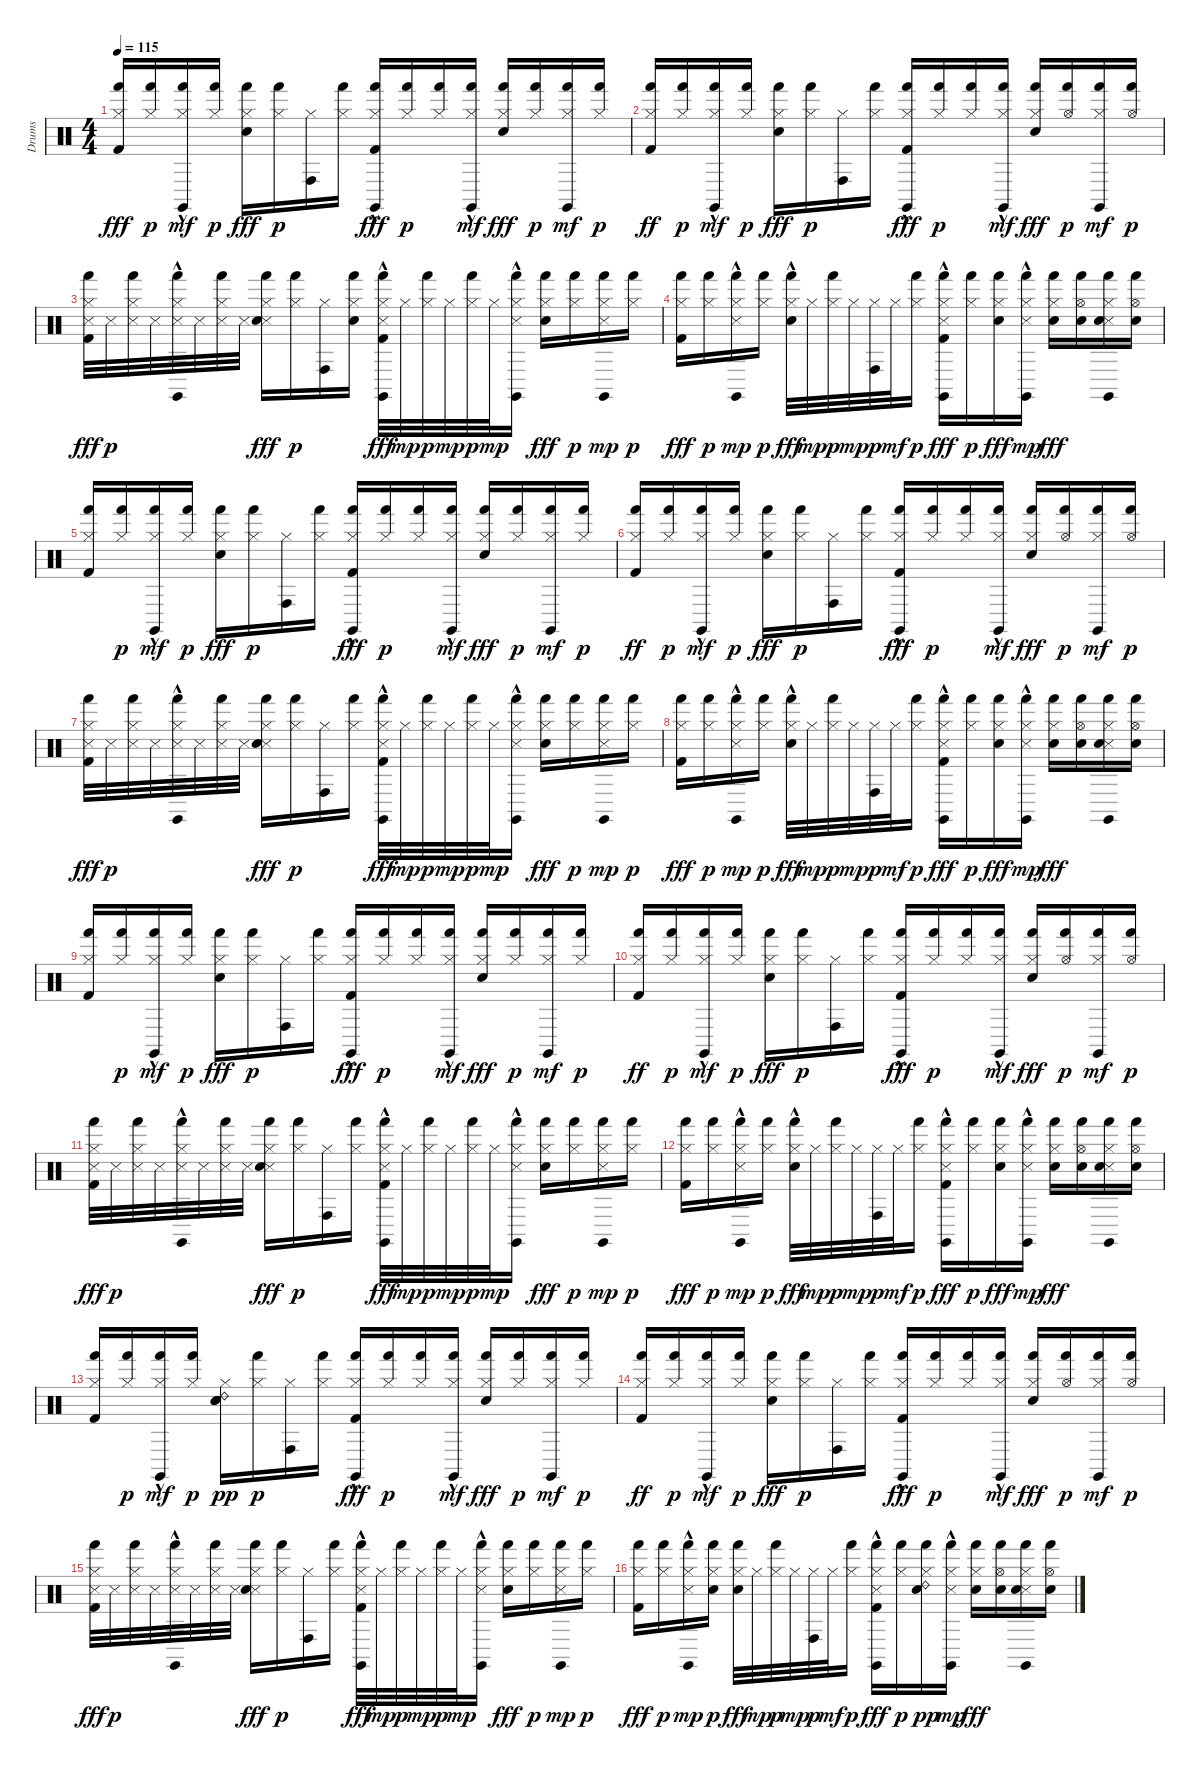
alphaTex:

\track ("Drums" "Drums") {instrument percussion}
\staff {score}
\articulation defaults
\ts (4 4)
\tempo 115
\clef neutral
\ks c
("Hi-Hat (closed)" "Hand (hit)" "Kick (hit) 2").16{dy fff} ("Hi-Hat (closed)" "Hand (hit)").16{dy p} ("Hi-Hat (closed)" "Hand (hit)" "Claves (hit)"{hac}).16{dy mf} ("Hi-Hat (closed)" "Hand (hit)").16{dy p} ("Hi-Hat (closed)" "Hand (hit)" "Snare (hit) 2").16{dy fff} ("Hi-Hat (closed)" "Hand (hit)").16{dy p} ("Hi-Hat (closed)" "Conga high (hit)").16 ("Hi-Hat (closed)" "Hand (hit)").16 ("Hi-Hat (closed)" "Hand (hit)" "Claves (hit)"{hac} "Kick (hit) 2").16{dy fff} ("Hi-Hat (closed)" "Hand (hit)").16{dy p} ("Hi-Hat (closed)" "Hand (hit)").16 ("Hi-Hat (closed)" "Hand (hit)" "Claves (hit)"{hac}).16{dy mf} ("Hi-Hat (closed)" "Hand (hit)" "Snare (hit) 2").16{dy fff} ("Hi-Hat (closed)" "Hand (hit)").16{dy p} ("Hi-Hat (closed)" "Hand (hit)" "Claves (hit)").16{dy mf} ("Hi-Hat (closed)" "Hand (hit)").16{dy p} |
("Hi-Hat (closed)" "Hand (hit)" "Kick (hit) 2").16{dy ff} ("Hi-Hat (closed)" "Hand (hit)").16{dy p} ("Hi-Hat (closed)" "Hand (hit)" "Claves (hit)"{hac}).16{dy mf} ("Hi-Hat (closed)" "Hand (hit)").16{dy p} ("Hi-Hat (closed)" "Hand (hit)" "Snare (hit) 2").16{dy fff} ("Hi-Hat (closed)" "Hand (hit)").16{dy p} ("Hi-Hat (closed)" "Conga high (hit)").16 ("Hi-Hat (closed)" "Hand (hit)").16 ("Hi-Hat (closed)" "Hand (hit)" "Claves (hit)"{hac} "Kick (hit) 2").16{dy fff} ("Hi-Hat (closed)" "Hand (hit)").16{dy p} ("Hi-Hat (closed)" "Hand (hit)").16 ("Hi-Hat (closed)" "Hand (hit)" "Claves (hit)"{hac}).16{dy mf} ("Hi-Hat (closed)" "Hand (hit)" "Snare (hit) 2").16{dy fff} ("Hi-Hat (open)" "Hand (hit)").16{dy p} ("Hi-Hat (closed)" "Hand (hit)" "Claves (hit)").16{dy mf} ("Hi-Hat (open)" "Hand (hit)").16{dy p} |
("Hi-Hat (closed)" "Hand (hit)" "Snare (side stick) 3" "Kick (hit) 2").32{dy fff} "Snare (side stick) 3".32{dy p} ("Hi-Hat (closed)" "Hand (hit)" "Snare (side stick) 3").32 "Snare (side stick) 3".32 ("Hi-Hat (closed)" "Hand (hit)" "Claves (hit)"{hac} "Snare (side stick) 3").32 "Snare (side stick) 3".32 ("Hi-Hat (closed)" "Hand (hit)" "Snare (side stick) 3").32 "Snare (side stick) 3".32 ("Hi-Hat (closed)" "Hand (hit)" "Snare (side stick) 3" "Snare (hit) 2").16{dy fff} ("Hi-Hat (closed)" "Hand (hit)").16{dy p} ("Hi-Hat (closed)" "Conga high (hit)").16 ("Hi-Hat (closed)" "Snare (hit)" "Hand (hit)").16 ("Hi-Hat (closed)" "Hand (hit)" "Claves (hit)"{hac} "Snare (side stick) 3"{hac} "Kick (hit) 2").32{dy fff} "Hi-Hat (closed)".32{dy mp} ("Hi-Hat (closed)" "Hand (hit)").32{dy p} "Hi-Hat (closed)".32{dy mp} ("Hi-Hat (closed)" "Hand (hit)").32{dy p} "Hi-Hat (closed)".32{dy mp} ("Hi-Hat (closed)" "Hand (hit)" "Claves (hit)"{hac} "Snare (side stick) 3"{hac}).16 ("Hi-Hat (closed)" "Hand (hit)" "Snare (hit) 2").16{dy fff} ("Hi-Hat (closed)" "Hand (hit)").16{dy p} ("Hi-Hat (closed)" "Hand (hit)" "Claves (hit)" "Snare (side stick) 3").16{dy mp} ("Hi-Hat (closed)" "Hand (hit)").16{dy p} |
("Hi-Hat (closed)" "Hand (hit)" "Kick (hit) 2").16{dy fff} ("Hi-Hat (closed)" "Hand (hit)").16{dy p} ("Hi-Hat (closed)" "Hand (hit)" "Claves (hit)"{hac} "Snare (side stick) 3"{hac}).16{dy mp} ("Hi-Hat (closed)" "Hand (hit)").16{dy p} ("Hi-Hat (closed)" "Hand (hit)" "Snare (hit) 2"{hac}).32{dy fff} "Hi-Hat (closed)".32{dy mp} ("Hi-Hat (closed)" "Hand (hit)").32{dy p} "Hi-Hat (closed)".32{dy mp} ("Hi-Hat (closed)" "Conga high (hit)").32{dy p} "Hi-Hat (closed)".32{dy mf} ("Hi-Hat (closed)" "Hand (hit)").16{dy p} ("Hi-Hat (closed)" "Hand (hit)" "Claves (hit)"{hac} "Snare (side stick) 3"{hac} "Kick (hit) 2").16{dy fff} ("Hi-Hat (closed)" "Hand (hit)").16{dy p} ("Hi-Hat (closed)" "Hand (hit)" "Snare (hit) 2").16{dy fff} ("Hi-Hat (closed)" "Hand (hit)" "Claves (hit)"{hac} "Snare (side stick) 3"{hac}).16{dy mp} ("Hi-Hat (closed)" "Hand (hit)" "Snare (hit) 2").16{dy fff} ("Hi-Hat (open)" "Hand (hit)" "Snare (hit) 2").16 ("Hi-Hat (closed)" "Hand (hit)" "Claves (hit)" "Snare (side stick) 3" "Snare (hit) 2").16 ("Hi-Hat (open)" "Hand (hit)" "Snare (hit) 2").16 |
("Hi-Hat (closed)" "Hand (hit)" "Kick (hit) 2").16 ("Hi-Hat (closed)" "Hand (hit)").16{dy p} ("Hi-Hat (closed)" "Hand (hit)" "Claves (hit)"{hac}).16{dy mf} ("Hi-Hat (closed)" "Hand (hit)").16{dy p} ("Hi-Hat (closed)" "Hand (hit)" "Snare (hit) 2").16{dy fff} ("Hi-Hat (closed)" "Hand (hit)").16{dy p} ("Hi-Hat (closed)" "Conga high (hit)").16 ("Hi-Hat (closed)" "Hand (hit)").16 ("Hi-Hat (closed)" "Hand (hit)" "Claves (hit)"{hac} "Kick (hit) 2").16{dy fff} ("Hi-Hat (closed)" "Hand (hit)").16{dy p} ("Hi-Hat (closed)" "Hand (hit)").16 ("Hi-Hat (closed)" "Hand (hit)" "Claves (hit)"{hac}).16{dy mf} ("Hi-Hat (closed)" "Hand (hit)" "Snare (hit) 2").16{dy fff} ("Hi-Hat (closed)" "Hand (hit)").16{dy p} ("Hi-Hat (closed)" "Hand (hit)" "Claves (hit)").16{dy mf} ("Hi-Hat (closed)" "Hand (hit)").16{dy p} |
("Hi-Hat (closed)" "Hand (hit)" "Kick (hit) 2").16{dy ff} ("Hi-Hat (closed)" "Hand (hit)").16{dy p} ("Hi-Hat (closed)" "Hand (hit)" "Claves (hit)"{hac}).16{dy mf} ("Hi-Hat (closed)" "Hand (hit)").16{dy p} ("Hi-Hat (closed)" "Hand (hit)" "Snare (hit) 2").16{dy fff} ("Hi-Hat (closed)" "Hand (hit)").16{dy p} ("Hi-Hat (closed)" "Conga high (hit)").16 ("Hi-Hat (closed)" "Hand (hit)").16 ("Hi-Hat (closed)" "Hand (hit)" "Claves (hit)"{hac} "Kick (hit) 2").16{dy fff} ("Hi-Hat (closed)" "Hand (hit)").16{dy p} ("Hi-Hat (closed)" "Hand (hit)").16 ("Hi-Hat (closed)" "Hand (hit)" "Claves (hit)"{hac}).16{dy mf} ("Hi-Hat (closed)" "Hand (hit)" "Snare (hit) 2").16{dy fff} ("Hi-Hat (open)" "Hand (hit)").16{dy p} ("Hi-Hat (closed)" "Hand (hit)" "Claves (hit)").16{dy mf} ("Hi-Hat (open)" "Hand (hit)").16{dy p} |
("Hi-Hat (closed)" "Hand (hit)" "Snare (side stick) 3" "Kick (hit) 2").32{dy fff} "Snare (side stick) 3".32{dy p} ("Hi-Hat (closed)" "Hand (hit)" "Snare (side stick) 3").32 "Snare (side stick) 3".32 ("Hi-Hat (closed)" "Hand (hit)" "Claves (hit)"{hac} "Snare (side stick) 3").32 "Snare (side stick) 3".32 ("Hi-Hat (closed)" "Hand (hit)" "Snare (side stick) 3").32 "Snare (side stick) 3".32 ("Hi-Hat (closed)" "Hand (hit)" "Snare (side stick) 3" "Snare (hit) 2").16{dy fff} ("Hi-Hat (closed)" "Hand (hit)").16{dy p} ("Hi-Hat (closed)" "Conga high (hit)").16 ("Hi-Hat (closed)" "Hand (hit)").16 ("Hi-Hat (closed)" "Hand (hit)" "Claves (hit)"{hac} "Snare (side stick) 3"{hac} "Kick (hit) 2").32{dy fff} "Hi-Hat (closed)".32{dy mp} ("Hi-Hat (closed)" "Hand (hit)").32{dy p} "Hi-Hat (closed)".32{dy mp} ("Hi-Hat (closed)" "Hand (hit)").32{dy p} "Hi-Hat (closed)".32{dy mp} ("Hi-Hat (closed)" "Hand (hit)" "Claves (hit)"{hac} "Snare (side stick) 3"{hac}).16 ("Hi-Hat (closed)" "Hand (hit)" "Snare (hit) 2").16{dy fff} ("Hi-Hat (closed)" "Hand (hit)").16{dy p} ("Hi-Hat (closed)" "Hand (hit)" "Claves (hit)" "Snare (side stick) 3").16{dy mp} ("Hi-Hat (closed)" "Hand (hit)").16{dy p} |
("Hi-Hat (closed)" "Hand (hit)" "Kick (hit) 2").16{dy fff} ("Hi-Hat (closed)" "Hand (hit)").16{dy p} ("Hi-Hat (closed)" "Hand (hit)" "Claves (hit)"{hac} "Snare (side stick) 3"{hac}).16{dy mp} ("Hi-Hat (closed)" "Hand (hit)").16{dy p} ("Hi-Hat (closed)" "Hand (hit)" "Snare (hit) 2"{hac}).32{dy fff} "Hi-Hat (closed)".32{dy mp} ("Hi-Hat (closed)" "Hand (hit)").32{dy p} "Hi-Hat (closed)".32{dy mp} ("Hi-Hat (closed)" "Conga high (hit)").32{dy p} "Hi-Hat (closed)".32{dy mf} ("Hi-Hat (closed)" "Hand (hit)").16{dy p} ("Hi-Hat (closed)" "Hand (hit)" "Claves (hit)"{hac} "Snare (side stick) 3"{hac} "Kick (hit) 2").16{dy fff} ("Hi-Hat (closed)" "Hand (hit)").16{dy p} ("Hi-Hat (closed)" "Hand (hit)" "Snare (hit) 2").16{dy fff} ("Hi-Hat (closed)" "Hand (hit)" "Claves (hit)"{hac} "Snare (side stick) 3"{hac}).16{dy mp} ("Hi-Hat (closed)" "Hand (hit)" "Snare (hit) 2").16{dy fff} ("Hi-Hat (open)" "Hand (hit)" "Snare (hit) 2").16 ("Hi-Hat (closed)" "Hand (hit)" "Claves (hit)" "Snare (side stick) 3" "Snare (hit) 2").16 ("Hi-Hat (open)" "Hand (hit)" "Snare (hit) 2").16 |
("Hi-Hat (closed)" "Hand (hit)" "Kick (hit) 2").16 ("Hi-Hat (closed)" "Hand (hit)").16{dy p} ("Hi-Hat (closed)" "Hand (hit)" "Claves (hit)"{hac}).16{dy mf} ("Hi-Hat (closed)" "Hand (hit)").16{dy p} ("Hi-Hat (closed)" "Hand (hit)" "Snare (hit) 2").16{dy fff} ("Hi-Hat (closed)" "Hand (hit)").16{dy p} ("Hi-Hat (closed)" "Conga high (hit)").16 ("Hi-Hat (closed)" "Hand (hit)").16 ("Hi-Hat (closed)" "Hand (hit)" "Claves (hit)"{hac} "Kick (hit) 2").16{dy fff} ("Hi-Hat (closed)" "Hand (hit)").16{dy p} ("Hi-Hat (closed)" "Hand (hit)").16 ("Hi-Hat (closed)" "Hand (hit)" "Claves (hit)"{hac}).16{dy mf} ("Hi-Hat (closed)" "Hand (hit)" "Snare (hit) 2").16{dy fff} ("Hi-Hat (closed)" "Hand (hit)").16{dy p} ("Hi-Hat (closed)" "Hand (hit)" "Claves (hit)").16{dy mf} ("Hi-Hat (closed)" "Hand (hit)").16{dy p} |
("Hi-Hat (closed)" "Hand (hit)" "Kick (hit) 2").16{dy ff} ("Hi-Hat (closed)" "Hand (hit)").16{dy p} ("Hi-Hat (closed)" "Hand (hit)" "Claves (hit)"{hac}).16{dy mf} ("Hi-Hat (closed)" "Hand (hit)").16{dy p} ("Hi-Hat (closed)" "Hand (hit)" "Snare (hit) 2").16{dy fff} ("Hi-Hat (closed)" "Hand (hit)").16{dy p} ("Hi-Hat (closed)" "Conga high (hit)").16 ("Hi-Hat (closed)" "Hand (hit)").16 ("Hi-Hat (closed)" "Hand (hit)" "Claves (hit)"{hac} "Kick (hit) 2").16{dy fff} ("Hi-Hat (closed)" "Hand (hit)").16{dy p} ("Hi-Hat (closed)" "Hand (hit)").16 ("Hi-Hat (closed)" "Hand (hit)" "Claves (hit)"{hac}).16{dy mf} ("Hi-Hat (closed)" "Hand (hit)" "Snare (hit) 2").16{dy fff} ("Hi-Hat (open)" "Hand (hit)").16{dy p} ("Hi-Hat (closed)" "Hand (hit)" "Claves (hit)").16{dy mf} ("Hi-Hat (open)" "Hand (hit)").16{dy p} |
("Hi-Hat (closed)" "Hand (hit)" "Snare (side stick) 3" "Kick (hit) 2").32{dy fff} "Snare (side stick) 3".32{dy p} ("Hi-Hat (closed)" "Hand (hit)" "Snare (side stick) 3").32 "Snare (side stick) 3".32 ("Hi-Hat (closed)" "Hand (hit)" "Claves (hit)"{hac} "Snare (side stick) 3").32 "Snare (side stick) 3".32 ("Hi-Hat (closed)" "Hand (hit)" "Snare (side stick) 3").32 "Snare (side stick) 3".32 ("Hi-Hat (closed)" "Hand (hit)" "Snare (side stick) 3" "Snare (hit) 2").16{dy fff} ("Hi-Hat (closed)" "Hand (hit)").16{dy p} ("Hi-Hat (closed)" "Conga high (hit)").16 ("Hi-Hat (closed)" "Hand (hit)").16 ("Hi-Hat (closed)" "Hand (hit)" "Claves (hit)"{hac} "Snare (side stick) 3"{hac} "Kick (hit) 2").32{dy fff} "Hi-Hat (closed)".32{dy mp} ("Hi-Hat (closed)" "Hand (hit)").32{dy p} "Hi-Hat (closed)".32{dy mp} ("Hi-Hat (closed)" "Hand (hit)").32{dy p} "Hi-Hat (closed)".32{dy mp} ("Hi-Hat (closed)" "Hand (hit)" "Claves (hit)"{hac} "Snare (side stick) 3"{hac}).16 ("Hi-Hat (closed)" "Hand (hit)" "Snare (hit) 2").16{dy fff} ("Hi-Hat (closed)" "Hand (hit)").16{dy p} ("Hi-Hat (closed)" "Hand (hit)" "Claves (hit)" "Snare (side stick) 3").16{dy mp} ("Hi-Hat (closed)" "Hand (hit)").16{dy p} |
("Hi-Hat (closed)" "Hand (hit)" "Kick (hit) 2").16{dy fff} ("Hi-Hat (closed)" "Hand (hit)").16{dy p} ("Hi-Hat (closed)" "Hand (hit)" "Claves (hit)"{hac} "Snare (side stick) 3"{hac}).16{dy mp} ("Hi-Hat (closed)" "Hand (hit)").16{dy p} ("Hi-Hat (closed)" "Hand (hit)" "Snare (hit) 2"{hac}).32{dy fff} "Hi-Hat (closed)".32{dy mp} ("Hi-Hat (closed)" "Hand (hit)").32{dy p} "Hi-Hat (closed)".32{dy mp} ("Hi-Hat (closed)" "Conga high (hit)").32{dy p} "Hi-Hat (closed)".32{dy mf} ("Hi-Hat (closed)" "Hand (hit)").16{dy p} ("Hi-Hat (closed)" "Hand (hit)" "Claves (hit)"{hac} "Snare (side stick) 3"{hac} "Kick (hit) 2").16{dy fff} ("Hi-Hat (closed)" "Hand (hit)").16{dy p} ("Hi-Hat (closed)" "Hand (hit)" "Snare (hit) 2").16{dy fff} ("Hi-Hat (closed)" "Hand (hit)" "Claves (hit)"{hac} "Snare (side stick) 3"{hac}).16{dy mp} ("Hi-Hat (closed)" "Hand (hit)" "Snare (hit) 2").16{dy fff} ("Hi-Hat (open)" "Hand (hit)" "Snare (hit) 2").16 ("Hi-Hat (closed)" "Hand (hit)" "Claves (hit)" "Snare (side stick) 3" "Snare (hit) 2").16 ("Hi-Hat (open)" "Hand (hit)" "Snare (hit) 2").16 |
("Hi-Hat (closed)" "Hand (hit)" "Kick (hit) 2").16 ("Hi-Hat (closed)" "Hand (hit)").16{dy p} ("Hi-Hat (closed)" "Hand (hit)" "Claves (hit)"{hac}).16{dy mf} ("Hi-Hat (closed)" "Hand (hit)").16{dy p} ("Snare (hit) 2" "Hi-Hat (closed)" "Snare (hit)" "Snare (hit)" "Ride (bell) 2").16{dy pp} ("Hi-Hat (closed)" "Hand (hit)").16{dy p} ("Hi-Hat (closed)" "Conga high (hit)").16 ("Hi-Hat (closed)" "Hand (hit)").16 ("Hi-Hat (closed)" "Hand (hit)" "Claves (hit)"{hac} "Kick (hit) 2").16{dy fff} ("Hi-Hat (closed)" "Hand (hit)").16{dy p} ("Hi-Hat (closed)" "Hand (hit)").16 ("Hi-Hat (closed)" "Hand (hit)" "Claves (hit)"{hac}).16{dy mf} ("Hi-Hat (closed)" "Hand (hit)" "Snare (hit) 2").16{dy fff} ("Hi-Hat (closed)" "Hand (hit)").16{dy p} ("Hi-Hat (closed)" "Hand (hit)" "Claves (hit)").16{dy mf} ("Hi-Hat (closed)" "Hand (hit)").16{dy p} |
("Hi-Hat (closed)" "Hand (hit)" "Kick (hit) 2").16{dy ff} ("Hi-Hat (closed)" "Hand (hit)").16{dy p} ("Hi-Hat (closed)" "Hand (hit)" "Claves (hit)"{hac}).16{dy mf} ("Hi-Hat (closed)" "Hand (hit)").16{dy p} ("Hi-Hat (closed)" "Hand (hit)" "Snare (hit) 2").16{dy fff} ("Hi-Hat (closed)" "Hand (hit)").16{dy p} ("Hi-Hat (closed)" "Conga high (hit)").16 ("Hi-Hat (closed)" "Hand (hit)").16 ("Hi-Hat (closed)" "Hand (hit)" "Claves (hit)"{hac} "Kick (hit) 2").16{dy fff} ("Hi-Hat (closed)" "Hand (hit)").16{dy p} ("Hi-Hat (closed)" "Hand (hit)").16 ("Hi-Hat (closed)" "Hand (hit)" "Claves (hit)"{hac}).16{dy mf} ("Hi-Hat (closed)" "Hand (hit)" "Snare (hit) 2").16{dy fff} ("Hi-Hat (open)" "Hand (hit)").16{dy p} ("Hi-Hat (closed)" "Hand (hit)" "Claves (hit)").16{dy mf} ("Hi-Hat (open)" "Hand (hit)").16{dy p} |
("Hi-Hat (closed)" "Hand (hit)" "Snare (side stick) 3" "Kick (hit) 2").32{dy fff} "Snare (side stick) 3".32{dy p} ("Hi-Hat (closed)" "Hand (hit)" "Snare (side stick) 3").32 "Snare (side stick) 3".32 ("Hi-Hat (closed)" "Hand (hit)" "Claves (hit)"{hac} "Snare (side stick) 3").32 "Snare (side stick) 3".32 ("Hi-Hat (closed)" "Hand (hit)" "Snare (side stick) 3").32 "Snare (side stick) 3".32 ("Hi-Hat (closed)" "Hand (hit)" "Snare (side stick) 3" "Snare (hit) 2").16{dy fff} ("Hi-Hat (closed)" "Hand (hit)").16{dy p} ("Hi-Hat (closed)" "Conga high (hit)").16 ("Hi-Hat (closed)" "Hand (hit)").16 ("Hi-Hat (closed)" "Hand (hit)" "Claves (hit)"{hac} "Snare (side stick) 3"{hac} "Kick (hit) 2").32{dy fff} "Hi-Hat (closed)".32{dy mp} ("Hi-Hat (closed)" "Hand (hit)").32{dy p} "Hi-Hat (closed)".32{dy mp} ("Hi-Hat (closed)" "Hand (hit)").32{dy p} "Hi-Hat (closed)".32{dy mp} ("Hi-Hat (closed)" "Hand (hit)" "Claves (hit)"{hac} "Snare (side stick) 3"{hac}).16 ("Hi-Hat (closed)" "Hand (hit)" "Snare (hit) 2").16{dy fff} ("Hi-Hat (closed)" "Hand (hit)").16{dy p} ("Hi-Hat (closed)" "Hand (hit)" "Claves (hit)" "Snare (side stick) 3").16{dy mp} ("Hi-Hat (closed)" "Hand (hit)").16{dy p} |
("Hi-Hat (closed)" "Hand (hit)" "Kick (hit) 2").16{dy fff} ("Hi-Hat (closed)" "Hand (hit)").16{dy p} ("Hi-Hat (closed)" "Hand (hit)" "Claves (hit)"{hac} "Snare (side stick) 3"{hac}).16{dy mp} ("Hi-Hat (closed)" "Snare (hit)" "Hand (hit)").16{dy p} ("Hi-Hat (closed)" "Hand (hit)" "Snare (hit) 2").32{dy fff} "Hi-Hat (closed)".32{dy mp} ("Hi-Hat (closed)" "Hand (hit)").32{dy p} "Hi-Hat (closed)".32{dy mp} ("Hi-Hat (closed)" "Conga high (hit)").32{dy p} "Hi-Hat (closed)".32{dy mf} ("Hi-Hat (closed)" "Hand (hit)").16{dy p} ("Hi-Hat (closed)" "Hand (hit)" "Claves (hit)"{hac} "Snare (side stick) 3"{hac} "Kick (hit) 2").16{dy fff} ("Hi-Hat (closed)" "Hand (hit)").16{dy p} ("Hi-Hat (closed)" "Hand (hit)" "Snare (hit) 2" "Ride (bell) 2").16{dy pp} ("Hi-Hat (closed)" "Hand (hit)" "Claves (hit)"{hac} "Snare (side stick) 3"{hac}).16{dy mp} ("Hi-Hat (closed)" "Hand (hit)" "Snare (hit) 2").16{dy fff} ("Hi-Hat (open)" "Hand (hit)" "Snare (hit) 2").16 ("Hi-Hat (closed)" "Hand (hit)" "Claves (hit)" "Snare (side stick) 3" "Snare (hit) 2").16 ("Hi-Hat (open)" "Hand (hit)" "Snare (hit) 2").16
